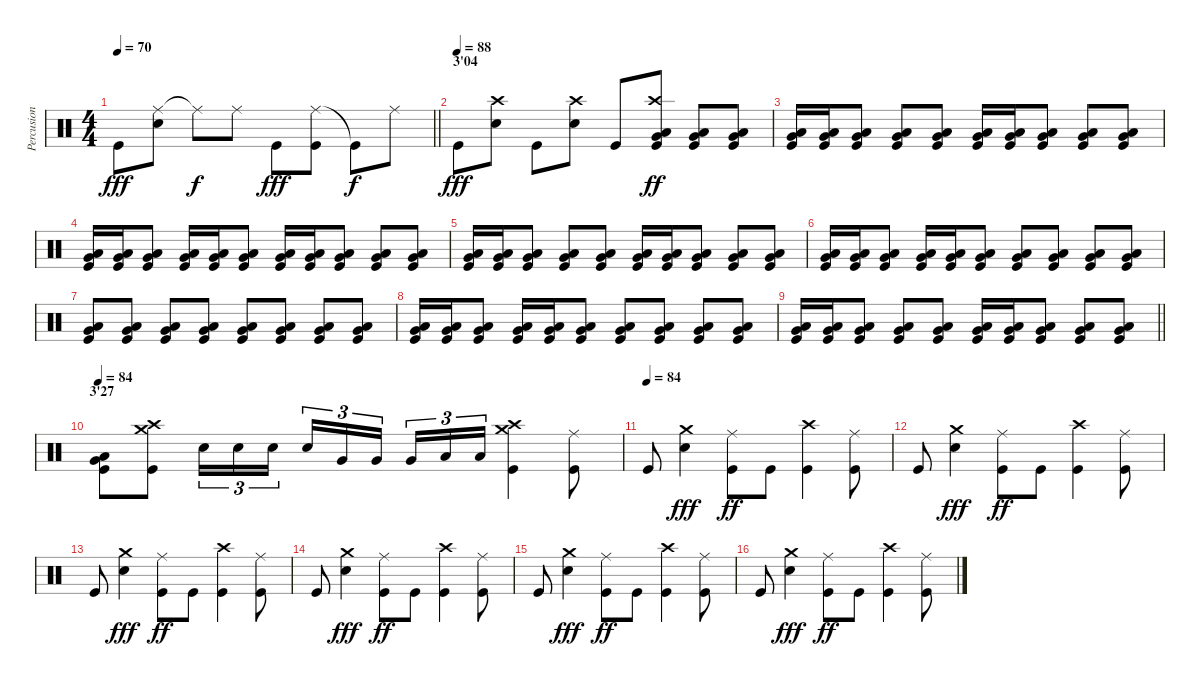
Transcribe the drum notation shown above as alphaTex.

\track ("Percusion" "Percusion") {instrument percussion}
\staff {score}
\articulation defaults
\ts (4 4)
\tempo 70
\clef neutral
\barLineRight lightlight
\ks c "Kick (hit)".8{dy fff}
("Ride (middle)" "Electric Snare (hit)").8 "Ride (middle)"{t}.8{dy f} "Ride (middle)".8 "Kick (hit)".8{dy fff} ("Ride (middle)" "Kick (hit)").8 "Kick (hit)"{t}.8{dy f} "Ride (middle)".8 |
\section ("" "3'04")
\tempo (88)
"Kick (hit)".8{dy fff} ("Crash high (hit)" "Electric Snare (hit)").8 "Kick (hit)".8 ("Crash high (hit)" "Electric Snare (hit)").8 "Kick (hit)".8 ("Crash high (hit)" "Very Low Tom (hit)" "Low Floor Tom (hit)" "Kick (hit)").8{dy ff} ("Very Low Tom (hit)" "Low Floor Tom (hit)" "Kick (hit)").8 ("Very Low Tom (hit)" "Low Floor Tom (hit)" "Kick (hit)").8 |
("Very Low Tom (hit)" "Low Floor Tom (hit)" "Kick (hit)").16 ("Very Low Tom (hit)" "Low Floor Tom (hit)" "Kick (hit)").16 ("Very Low Tom (hit)" "Low Floor Tom (hit)" "Kick (hit)").8 ("Very Low Tom (hit)" "Low Floor Tom (hit)" "Kick (hit)").8 ("Very Low Tom (hit)" "Low Floor Tom (hit)" "Kick (hit)").8 ("Very Low Tom (hit)" "Low Floor Tom (hit)" "Kick (hit)").16 ("Very Low Tom (hit)" "Low Floor Tom (hit)" "Kick (hit)").16 ("Very Low Tom (hit)" "Low Floor Tom (hit)" "Kick (hit)").8 ("Very Low Tom (hit)" "Low Floor Tom (hit)" "Kick (hit)").8 ("Very Low Tom (hit)" "Low Floor Tom (hit)" "Kick (hit)").8 |
("Very Low Tom (hit)" "Low Floor Tom (hit)" "Kick (hit)").16 ("Very Low Tom (hit)" "Low Floor Tom (hit)" "Kick (hit)").16 ("Very Low Tom (hit)" "Low Floor Tom (hit)" "Kick (hit)").8 ("Very Low Tom (hit)" "Low Floor Tom (hit)" "Kick (hit)").16 ("Very Low Tom (hit)" "Low Floor Tom (hit)" "Kick (hit)").16 ("Very Low Tom (hit)" "Low Floor Tom (hit)" "Kick (hit)").8 ("Very Low Tom (hit)" "Low Floor Tom (hit)" "Kick (hit)").16 ("Very Low Tom (hit)" "Low Floor Tom (hit)" "Kick (hit)").16 ("Very Low Tom (hit)" "Low Floor Tom (hit)" "Kick (hit)").8 ("Very Low Tom (hit)" "Low Floor Tom (hit)" "Kick (hit)").8 ("Very Low Tom (hit)" "Low Floor Tom (hit)" "Kick (hit)").8 |
("Very Low Tom (hit)" "Low Floor Tom (hit)" "Kick (hit)").16 ("Very Low Tom (hit)" "Low Floor Tom (hit)" "Kick (hit)").16 ("Very Low Tom (hit)" "Low Floor Tom (hit)" "Kick (hit)").8 ("Very Low Tom (hit)" "Low Floor Tom (hit)" "Kick (hit)").8 ("Very Low Tom (hit)" "Low Floor Tom (hit)" "Kick (hit)").8 ("Very Low Tom (hit)" "Low Floor Tom (hit)" "Kick (hit)").16 ("Very Low Tom (hit)" "Low Floor Tom (hit)" "Kick (hit)").16 ("Very Low Tom (hit)" "Low Floor Tom (hit)" "Kick (hit)").8 ("Very Low Tom (hit)" "Low Floor Tom (hit)" "Kick (hit)").8 ("Very Low Tom (hit)" "Low Floor Tom (hit)" "Kick (hit)").8 |
("Very Low Tom (hit)" "Low Floor Tom (hit)" "Kick (hit)").16 ("Very Low Tom (hit)" "Low Floor Tom (hit)" "Kick (hit)").16 ("Very Low Tom (hit)" "Low Floor Tom (hit)" "Kick (hit)").8 ("Very Low Tom (hit)" "Low Floor Tom (hit)" "Kick (hit)").16 ("Very Low Tom (hit)" "Low Floor Tom (hit)" "Kick (hit)").16 ("Very Low Tom (hit)" "Low Floor Tom (hit)" "Kick (hit)").8 ("Very Low Tom (hit)" "Low Floor Tom (hit)" "Kick (hit)").8 ("Very Low Tom (hit)" "Low Floor Tom (hit)" "Kick (hit)").8 ("Very Low Tom (hit)" "Low Floor Tom (hit)" "Kick (hit)").8 ("Very Low Tom (hit)" "Low Floor Tom (hit)" "Kick (hit)").8 |
("Very Low Tom (hit)" "Low Floor Tom (hit)" "Kick (hit)").8 ("Very Low Tom (hit)" "Low Floor Tom (hit)" "Kick (hit)").8 ("Very Low Tom (hit)" "Low Floor Tom (hit)" "Kick (hit)").8 ("Very Low Tom (hit)" "Low Floor Tom (hit)" "Kick (hit)").8 ("Very Low Tom (hit)" "Low Floor Tom (hit)" "Kick (hit)").8 ("Very Low Tom (hit)" "Low Floor Tom (hit)" "Kick (hit)").8 ("Very Low Tom (hit)" "Low Floor Tom (hit)" "Kick (hit)").8 ("Very Low Tom (hit)" "Low Floor Tom (hit)" "Kick (hit)").8 |
("Very Low Tom (hit)" "Low Floor Tom (hit)" "Kick (hit)").16 ("Very Low Tom (hit)" "Low Floor Tom (hit)" "Kick (hit)").16 ("Very Low Tom (hit)" "Low Floor Tom (hit)" "Kick (hit)").8 ("Very Low Tom (hit)" "Low Floor Tom (hit)" "Kick (hit)").16 ("Very Low Tom (hit)" "Low Floor Tom (hit)" "Kick (hit)").16 ("Very Low Tom (hit)" "Low Floor Tom (hit)" "Kick (hit)").8 ("Very Low Tom (hit)" "Low Floor Tom (hit)" "Kick (hit)").8 ("Very Low Tom (hit)" "Low Floor Tom (hit)" "Kick (hit)").8 ("Very Low Tom (hit)" "Low Floor Tom (hit)" "Kick (hit)").8 ("Very Low Tom (hit)" "Low Floor Tom (hit)" "Kick (hit)").8 |
\barLineRight lightlight
("Very Low Tom (hit)" "Low Floor Tom (hit)" "Kick (hit)").16 ("Very Low Tom (hit)" "Low Floor Tom (hit)" "Kick (hit)").16 ("Very Low Tom (hit)" "Low Floor Tom (hit)" "Kick (hit)").8 ("Very Low Tom (hit)" "Low Floor Tom (hit)" "Kick (hit)").8 ("Very Low Tom (hit)" "Low Floor Tom (hit)" "Kick (hit)").8 ("Very Low Tom (hit)" "Low Floor Tom (hit)" "Kick (hit)").16 ("Very Low Tom (hit)" "Low Floor Tom (hit)" "Kick (hit)").16 ("Very Low Tom (hit)" "Low Floor Tom (hit)" "Kick (hit)").8 ("Very Low Tom (hit)" "Low Floor Tom (hit)" "Kick (hit)").8 ("Very Low Tom (hit)" "Low Floor Tom (hit)" "Kick (hit)").8 |
\section ("" "3'27")
\tempo 84
("Very Low Tom (hit)" "Low Floor Tom (hit)" "Kick (hit)").8 ("Crash high (hit)" "Crash medium (hit)" "Kick (hit)").8 "Electric Snare (hit)".16{tu (3 2)} "Electric Snare (hit)".16{tu (3 2)} "Electric Snare (hit)".16{tu (3 2) beam splitsecondary} "Electric Snare (hit)".16{tu (3 2)} "Very Low Tom (hit)".16{tu (3 2)} "Very Low Tom (hit)".16{tu (3 2)} "Very Low Tom (hit)".16{tu (3 2)} "Low Floor Tom (hit)".16{tu (3 2)} "Low Floor Tom (hit)".16{tu (3 2)} ("Crash high (hit)" "Crash medium (hit)" "Kick (hit)").4 ("Ride (middle)" "Kick (hit)").8 |
\tempo (84)
"Kick (hit)".8 ("Crash medium (hit)" "Electric Snare (hit)").4{dy fff} ("Ride (middle)" "Kick (hit)").8{dy ff beam merge} "Kick (hit)".8 ("Crash high (hit)" "Kick (hit)").4 ("Ride (middle)" "Kick (hit)").8 |
"Kick (hit)".8 ("Crash medium (hit)" "Electric Snare (hit)").4{dy fff} ("Ride (middle)" "Kick (hit)").8{dy ff beam merge} "Kick (hit)".8 ("Crash high (hit)" "Kick (hit)").4 ("Ride (middle)" "Kick (hit)").8 |
"Kick (hit)".8 ("Crash medium (hit)" "Electric Snare (hit)").4{dy fff} ("Ride (middle)" "Kick (hit)").8{dy ff beam merge} "Kick (hit)".8 ("Crash high (hit)" "Kick (hit)").4 ("Ride (middle)" "Kick (hit)").8 |
"Kick (hit)".8 ("Crash medium (hit)" "Electric Snare (hit)").4{dy fff} ("Ride (middle)" "Kick (hit)").8{dy ff beam merge} "Kick (hit)".8 ("Crash high (hit)" "Kick (hit)").4 ("Ride (middle)" "Kick (hit)").8 |
"Kick (hit)".8 ("Crash medium (hit)" "Electric Snare (hit)").4{dy fff} ("Ride (middle)" "Kick (hit)").8{dy ff beam merge} "Kick (hit)".8 ("Crash high (hit)" "Kick (hit)").4 ("Ride (middle)" "Kick (hit)").8 |
"Kick (hit)".8 ("Crash medium (hit)" "Electric Snare (hit)").4{dy fff} ("Ride (middle)" "Kick (hit)").8{dy ff beam merge} "Kick (hit)".8 ("Crash high (hit)" "Kick (hit)").4 ("Ride (middle)" "Kick (hit)").8
